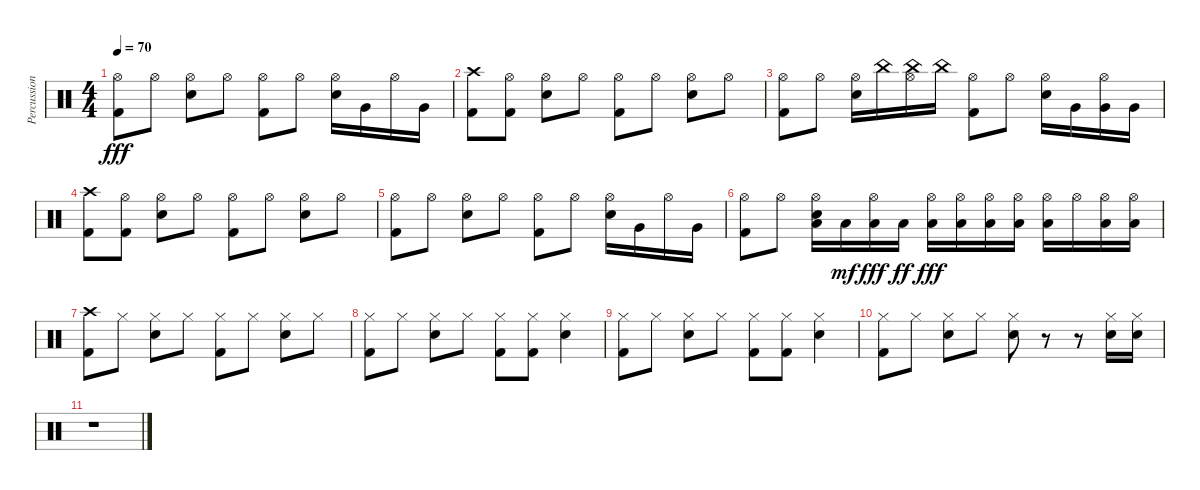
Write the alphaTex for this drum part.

\track ("Percussion" "Percussion") {instrument percussion}
\staff {score}
\articulation defaults
\ts (4 4)
\tempo 70
\clef neutral
\ks c
("Hi-Hat (open)" "Kick (hit) 2").8{dy fff} "Hi-Hat (open)".8 ("Hi-Hat (open)" "Snare (hit) 2").8 "Hi-Hat (open)".8 ("Hi-Hat (open)" "Kick (hit) 2").8 "Hi-Hat (open)".8 ("Hi-Hat (open)" "Snare (hit) 2").16 "Very Low Tom (hit)".16 "Hi-Hat (open)".16 "Very Low Tom (hit)".16 |
("Crash high (hit)" "Kick (hit) 2").8 ("Hi-Hat (open)" "Kick (hit) 2").8 ("Hi-Hat (open)" "Snare (hit) 2").8 "Hi-Hat (open)".8 ("Hi-Hat (open)" "Kick (hit) 2").8 "Hi-Hat (open)".8 ("Hi-Hat (open)" "Snare (hit) 2").8 "Hi-Hat (open)".8 |
("Hi-Hat (open)" "Kick (hit) 2").8 "Hi-Hat (open)".8 ("Hi-Hat (open)" "Snare (hit) 2").16 "China (hit)".16 ("Hi-Hat (open)" "China (hit)").16 "China (hit)".16 ("Hi-Hat (open)" "Kick (hit) 2").8 "Hi-Hat (open)".8 ("Hi-Hat (open)" "Snare (hit) 2").16 "Very Low Tom (hit)".16 ("Hi-Hat (open)" "Very Low Tom (hit)").16 "Very Low Tom (hit)".16 |
("Crash high (hit)" "Kick (hit) 2").8 ("Hi-Hat (open)" "Kick (hit) 2").8 ("Hi-Hat (open)" "Snare (hit) 2").8 "Hi-Hat (open)".8 ("Hi-Hat (open)" "Kick (hit) 2").8 "Hi-Hat (open)".8 ("Hi-Hat (open)" "Snare (hit) 2").8 "Hi-Hat (open)".8 |
("Hi-Hat (open)" "Kick (hit) 2").8 "Hi-Hat (open)".8 ("Hi-Hat (open)" "Snare (hit) 2").8 "Hi-Hat (open)".8 ("Hi-Hat (open)" "Kick (hit) 2").8 "Hi-Hat (open)".8 ("Hi-Hat (open)" "Snare (hit) 2").16 "Very Low Tom (hit)".16 "Hi-Hat (open)".16 "Very Low Tom (hit)".16 |
("Hi-Hat (open)" "Kick (hit) 2").8 "Hi-Hat (open)".8 ("Hi-Hat (open)" "Low Tom (hit)" "Snare (hit) 2").16 "Low Tom (hit)".16{dy mf} ("Hi-Hat (open)" "Low Tom (hit)").16{dy fff} "Low Tom (hit)".16{dy ff} ("Hi-Hat (open)" "Low Tom (hit)").16{dy fff} ("Hi-Hat (open)" "Low Tom (hit)").16 ("Hi-Hat (open)" "Low Tom (hit)").16 ("Hi-Hat (open)" "Low Tom (hit)").16 ("Hi-Hat (open)" "Low Tom (hit)").16 "Hi-Hat (open)".16 ("Hi-Hat (open)" "Low Tom (hit)").16 ("Hi-Hat (open)" "Low Tom (hit)").16 |
("Crash high (hit)" "Kick (hit) 2").8 "Hi-Hat (closed)".8 ("Hi-Hat (closed)" "Snare (hit) 2").8 "Hi-Hat (closed)".8 ("Hi-Hat (closed)" "Kick (hit) 2").8 "Hi-Hat (closed)".8 ("Hi-Hat (closed)" "Snare (hit) 2").8 "Hi-Hat (closed)".8 |
("Hi-Hat (closed)" "Kick (hit) 2").8 "Hi-Hat (closed)".8 ("Hi-Hat (closed)" "Snare (hit) 2").8 "Hi-Hat (closed)".8 ("Hi-Hat (closed)" "Kick (hit) 2").8 ("Hi-Hat (closed)" "Kick (hit) 2").8 ("Hi-Hat (closed)" "Snare (hit) 2").4 |
("Hi-Hat (closed)" "Kick (hit) 2").8 "Hi-Hat (closed)".8 ("Hi-Hat (closed)" "Snare (hit) 2").8 "Hi-Hat (closed)".8 ("Hi-Hat (closed)" "Kick (hit) 2").8 ("Hi-Hat (closed)" "Kick (hit) 2").8 ("Hi-Hat (closed)" "Snare (hit) 2").4 |
("Hi-Hat (closed)" "Kick (hit) 2").8 "Hi-Hat (closed)".8 ("Hi-Hat (closed)" "Snare (hit) 2").8 "Hi-Hat (closed)".8 ("Hi-Hat (closed)" "Snare (hit) 2").8 r.8 r.8 ("Hi-Hat (closed)" "Snare (hit) 2").16 ("Hi-Hat (closed)" "Snare (hit) 2").16 |
r.1
